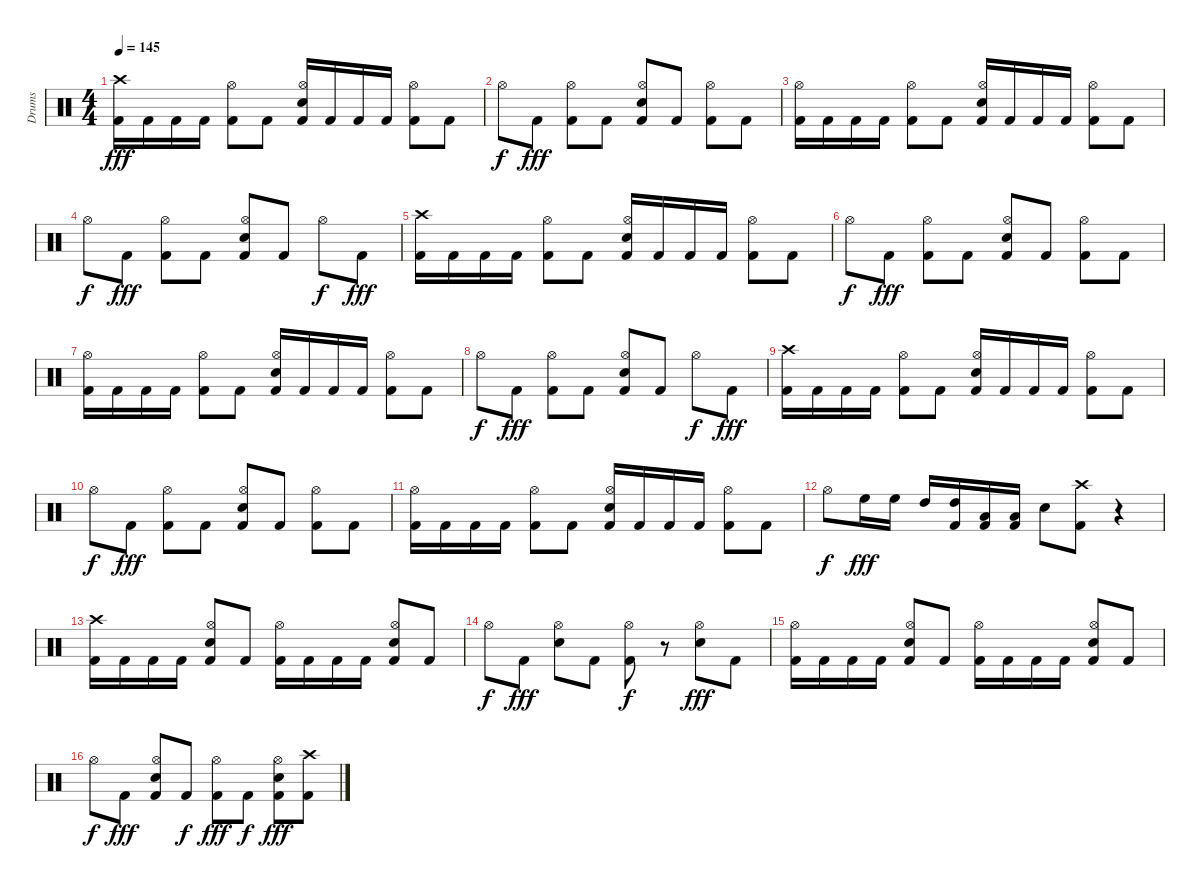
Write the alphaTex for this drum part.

\track ("Drums" "Drums") {instrument percussion}
\staff {score}
\articulation defaults
\ts (4 4)
\tempo 145
\clef neutral
\ks c
("Crash high (hit)" "Kick (hit) 2").16{dy fff} "Kick (hit) 2".16 "Kick (hit) 2".16 "Kick (hit) 2".16 ("Hi-Hat (open)" "Kick (hit) 2").8 "Kick (hit) 2".8 ("Hi-Hat (open)" "Snare (hit) 2" "Kick (hit) 2").16 "Kick (hit) 2".16 "Kick (hit) 2".16 "Kick (hit) 2".16 ("Hi-Hat (open)" "Kick (hit) 2").8 "Kick (hit) 2".8 |
"Hi-Hat (open)".8{dy f} "Kick (hit) 2".8{dy fff} ("Hi-Hat (open)" "Kick (hit) 2").8 "Kick (hit) 2".8 ("Hi-Hat (open)" "Snare (hit) 2" "Kick (hit) 2").8 "Kick (hit) 2".8 ("Hi-Hat (open)" "Kick (hit) 2").8 "Kick (hit) 2".8 |
("Hi-Hat (open)" "Kick (hit) 2").16 "Kick (hit) 2".16 "Kick (hit) 2".16 "Kick (hit) 2".16 ("Hi-Hat (open)" "Kick (hit) 2").8 "Kick (hit) 2".8 ("Hi-Hat (open)" "Snare (hit) 2" "Kick (hit) 2").16 "Kick (hit) 2".16 "Kick (hit) 2".16 "Kick (hit) 2".16 ("Hi-Hat (open)" "Kick (hit) 2").8 "Kick (hit) 2".8 |
"Hi-Hat (open)".8{dy f} "Kick (hit) 2".8{dy fff} ("Hi-Hat (open)" "Kick (hit) 2").8 "Kick (hit) 2".8 ("Hi-Hat (open)" "Snare (hit) 2" "Kick (hit) 2").8 "Kick (hit) 2".8 "Hi-Hat (open)".8{dy f} "Kick (hit) 2".8{dy fff} |
("Crash high (hit)" "Kick (hit) 2").16 "Kick (hit) 2".16 "Kick (hit) 2".16 "Kick (hit) 2".16 ("Hi-Hat (open)" "Kick (hit) 2").8 "Kick (hit) 2".8 ("Hi-Hat (open)" "Snare (hit) 2" "Kick (hit) 2").16 "Kick (hit) 2".16 "Kick (hit) 2".16 "Kick (hit) 2".16 ("Hi-Hat (open)" "Kick (hit) 2").8 "Kick (hit) 2".8 |
"Hi-Hat (open)".8{dy f} "Kick (hit) 2".8{dy fff} ("Hi-Hat (open)" "Kick (hit) 2").8 "Kick (hit) 2".8 ("Hi-Hat (open)" "Snare (hit) 2" "Kick (hit) 2").8 "Kick (hit) 2".8 ("Hi-Hat (open)" "Kick (hit) 2").8 "Kick (hit) 2".8 |
("Hi-Hat (open)" "Kick (hit) 2").16 "Kick (hit) 2".16 "Kick (hit) 2".16 "Kick (hit) 2".16 ("Hi-Hat (open)" "Kick (hit) 2").8 "Kick (hit) 2".8 ("Hi-Hat (open)" "Snare (hit) 2" "Kick (hit) 2").16 "Kick (hit) 2".16 "Kick (hit) 2".16 "Kick (hit) 2".16 ("Hi-Hat (open)" "Kick (hit) 2").8 "Kick (hit) 2".8 |
"Hi-Hat (open)".8{dy f} "Kick (hit) 2".8{dy fff} ("Hi-Hat (open)" "Kick (hit) 2").8 "Kick (hit) 2".8 ("Hi-Hat (open)" "Snare (hit) 2" "Kick (hit) 2").8 "Kick (hit) 2".8 "Hi-Hat (open)".8{dy f} "Kick (hit) 2".8{dy fff} |
("Crash high (hit)" "Kick (hit) 2").16 "Kick (hit) 2".16 "Kick (hit) 2".16 "Kick (hit) 2".16 ("Hi-Hat (open)" "Kick (hit) 2").8 "Kick (hit) 2".8 ("Hi-Hat (open)" "Snare (hit) 2" "Kick (hit) 2").16 "Kick (hit) 2".16 "Kick (hit) 2".16 "Kick (hit) 2".16 ("Hi-Hat (open)" "Kick (hit) 2").8 "Kick (hit) 2".8 |
"Hi-Hat (open)".8{dy f} "Kick (hit) 2".8{dy fff} ("Hi-Hat (open)" "Kick (hit) 2").8 "Kick (hit) 2".8 ("Hi-Hat (open)" "Snare (hit) 2" "Kick (hit) 2").8 "Kick (hit) 2".8 ("Hi-Hat (open)" "Kick (hit) 2").8 "Kick (hit) 2".8 |
("Hi-Hat (open)" "Kick (hit) 2").16 "Kick (hit) 2".16 "Kick (hit) 2".16 "Kick (hit) 2".16 ("Hi-Hat (open)" "Kick (hit) 2").8 "Kick (hit) 2".8 ("Hi-Hat (open)" "Snare (hit) 2" "Kick (hit) 2").16 "Kick (hit) 2".16 "Kick (hit) 2".16 "Kick (hit) 2".16 ("Hi-Hat (open)" "Kick (hit) 2").8 "Kick (hit) 2".8 |
"Hi-Hat (open)".8{dy f} "High Floor Tom (hit)".16{dy fff} "High Floor Tom (hit)".16 "High Tom (hit)".16 ("High Tom (hit)" "Kick (hit) 2").16 ("Low Tom (hit)" "Kick (hit) 2").16 ("Low Tom (hit)" "Kick (hit) 2").16 "Snare (hit) 2".8 ("Crash high (hit)" "Kick (hit) 2").8 r.4 |
("Crash high (hit)" "Kick (hit) 2").16 "Kick (hit) 2".16 "Kick (hit) 2".16 "Kick (hit) 2".16 ("Hi-Hat (open)" "Snare (hit) 2" "Kick (hit) 2").8 "Kick (hit) 2".8 ("Hi-Hat (open)" "Kick (hit) 2").16 "Kick (hit) 2".16 "Kick (hit) 2".16 "Kick (hit) 2".16 ("Hi-Hat (open)" "Snare (hit) 2" "Kick (hit) 2").8 "Kick (hit) 2".8 |
"Hi-Hat (open)".8{dy f} "Kick (hit) 2".8{dy fff} ("Hi-Hat (open)" "Snare (hit) 2").8 "Kick (hit) 2".8 ("Hi-Hat (open)" "Kick (hit) 2").8{dy f} r.8 ("Hi-Hat (open)" "Snare (hit) 2").8{dy fff} "Kick (hit) 2".8 |
("Hi-Hat (open)" "Kick (hit) 2").16 "Kick (hit) 2".16 "Kick (hit) 2".16 "Kick (hit) 2".16 ("Hi-Hat (open)" "Snare (hit) 2" "Kick (hit) 2").8 "Kick (hit) 2".8 ("Hi-Hat (open)" "Kick (hit) 2").16 "Kick (hit) 2".16 "Kick (hit) 2".16 "Kick (hit) 2".16 ("Hi-Hat (open)" "Snare (hit) 2" "Kick (hit) 2").8 "Kick (hit) 2".8 |
"Hi-Hat (open)".8{dy f} "Kick (hit) 2".8{dy fff} ("Hi-Hat (open)" "Snare (hit) 2" "Kick (hit) 2").8 "Kick (hit) 2".8{dy f} ("Hi-Hat (open)" "Kick (hit) 2").8{dy fff} "Kick (hit) 2".8{dy f} ("Hi-Hat (open)" "Snare (hit) 2" "Kick (hit) 2").8{dy fff} ("Crash high (hit)" "Kick (hit) 2").8
